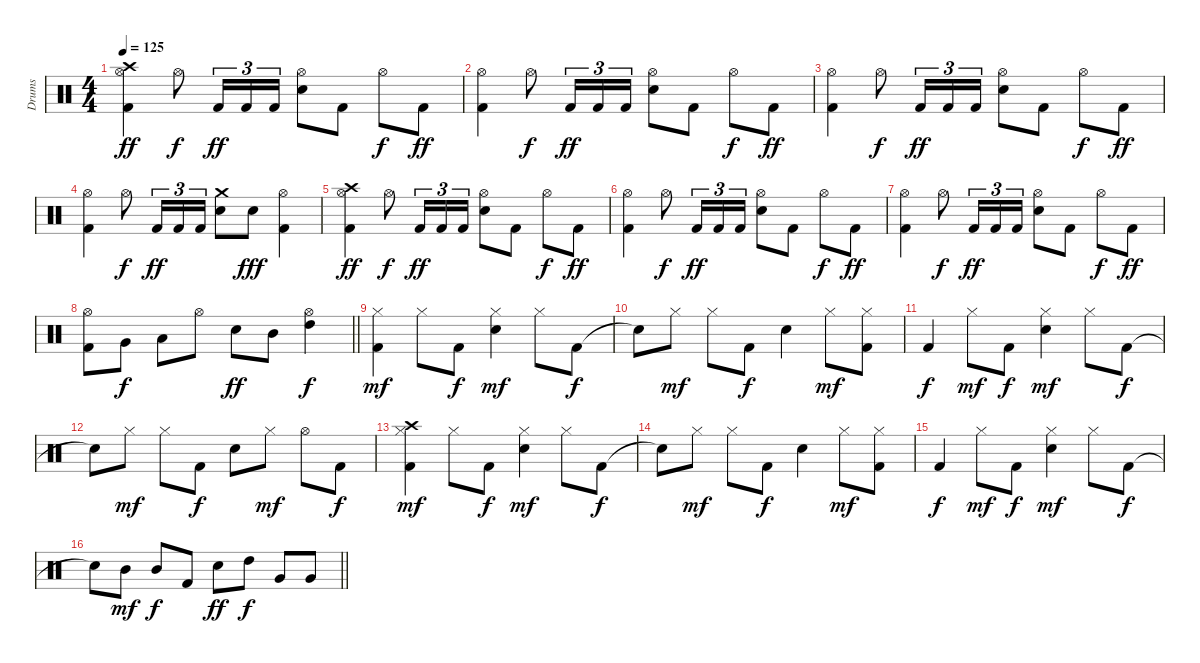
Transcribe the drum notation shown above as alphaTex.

\track ("Drums" "Drums") {instrument percussion}
\staff {score}
\articulation defaults
\ts (4 4)
\section ("" "")
\tempo 125
\clef neutral
\ks c
("Crash high (hit)" "Hi-Hat (open)" "Kick (hit) 2").4{dy ff} "Hi-Hat (open)".8{dy f} "Kick (hit) 2".16{tu (3 2) dy ff} "Kick (hit) 2".16{tu (3 2)} "Kick (hit) 2".16{tu (3 2)} ("Hi-Hat (open)" "Snare (hit) 2").8 "Kick (hit) 2".8 "Hi-Hat (open)".8{dy f} "Kick (hit) 2".8{dy ff} |
("Hi-Hat (open)" "Kick (hit) 2").4 "Hi-Hat (open)".8{dy f} "Kick (hit) 2".16{tu (3 2) dy ff} "Kick (hit) 2".16{tu (3 2)} "Kick (hit) 2".16{tu (3 2)} ("Hi-Hat (open)" "Snare (hit) 2").8 "Kick (hit) 2".8 "Hi-Hat (open)".8{dy f} "Kick (hit) 2".8{dy ff} |
("Hi-Hat (open)" "Kick (hit) 2").4 "Hi-Hat (open)".8{dy f} "Kick (hit) 2".16{tu (3 2) dy ff} "Kick (hit) 2".16{tu (3 2)} "Kick (hit) 2".16{tu (3 2)} ("Hi-Hat (open)" "Snare (hit) 2").8 "Kick (hit) 2".8 "Hi-Hat (open)".8{dy f} "Kick (hit) 2".8{dy ff} |
("Hi-Hat (open)" "Kick (hit) 2").4 "Hi-Hat (open)".8{dy f} "Kick (hit) 2".16{tu (3 2) dy ff} "Kick (hit) 2".16{tu (3 2)} "Kick (hit) 2".16{tu (3 2)} ("Crash medium (hit)" "Snare (hit) 2").8 "Snare (hit) 2".8{dy fff} ("Hi-Hat (open)" "Kick (hit) 2").4 |
("Crash high (hit)" "Hi-Hat (open)" "Kick (hit) 2").4{dy ff} "Hi-Hat (open)".8{dy f} "Kick (hit) 2".16{tu (3 2) dy ff} "Kick (hit) 2".16{tu (3 2)} "Kick (hit) 2".16{tu (3 2)} ("Hi-Hat (open)" "Snare (hit) 2").8 "Kick (hit) 2".8 "Hi-Hat (open)".8{dy f} "Kick (hit) 2".8{dy ff} |
("Hi-Hat (open)" "Kick (hit) 2").4 "Hi-Hat (open)".8{dy f} "Kick (hit) 2".16{tu (3 2) dy ff} "Kick (hit) 2".16{tu (3 2)} "Kick (hit) 2".16{tu (3 2)} ("Hi-Hat (open)" "Snare (hit) 2").8 "Kick (hit) 2".8 "Hi-Hat (open)".8{dy f} "Kick (hit) 2".8{dy ff} |
("Hi-Hat (open)" "Kick (hit) 2").4 "Hi-Hat (open)".8{dy f} "Kick (hit) 2".16{tu (3 2) dy ff} "Kick (hit) 2".16{tu (3 2)} "Kick (hit) 2".16{tu (3 2)} ("Hi-Hat (open)" "Snare (hit) 2").8 "Kick (hit) 2".8 "Hi-Hat (open)".8{dy f} "Kick (hit) 2".8{dy ff} |
\barLineRight lightlight
("Hi-Hat (open)" "Kick (hit) 2").8 "Very Low Tom (hit)".8{dy f} "Low Tom (hit)".8 "Hi-Hat (open)".8 "Snare (hit) 2".8{dy ff} "Mid Tom (hit)".8 ("Hi-Hat (open)" "High Tom (hit)").4{dy f} |
\section ("" "")
("Hi-Hat (closed)" "Kick (hit) 2").4{dy mf} "Hi-Hat (closed)".8 "Kick (hit) 2".8{dy f} ("Hi-Hat (closed)" "Snare (hit) 2").4{dy mf} "Hi-Hat (closed)".8 "Kick (hit) 2".8{dy f} |
"Snare (hit)"{t}.8 "Hi-Hat (closed)".8{dy mf} "Hi-Hat (closed)".8 "Kick (hit) 2".8{dy f} "Snare (hit) 2".4 "Hi-Hat (closed)".8{dy mf} ("Hi-Hat (closed)" "Kick (hit) 2").8 |
"Kick (hit) 2".4{dy f} "Hi-Hat (closed)".8{dy mf} "Kick (hit) 2".8{dy f} ("Hi-Hat (closed)" "Snare (hit) 2").4{dy mf} "Hi-Hat (closed)".8 "Kick (hit) 2".8{dy f} |
"Snare (hit)"{t}.8 "Hi-Hat (closed)".8{dy mf} "Hi-Hat (closed)".8 "Kick (hit) 2".8{dy f} "Snare (hit) 2".8 "Hi-Hat (closed)".8{dy mf} "Hi-Hat (open)".8 "Kick (hit) 2".8{dy f} |
("Crash high (hit)" "Hi-Hat (closed)" "Kick (hit) 2").4{dy mf} "Hi-Hat (closed)".8 "Kick (hit) 2".8{dy f} ("Hi-Hat (closed)" "Snare (hit) 2").4{dy mf} "Hi-Hat (closed)".8 "Kick (hit) 2".8{dy f} |
"Snare (hit)"{t}.8 "Hi-Hat (closed)".8{dy mf} "Hi-Hat (closed)".8 "Kick (hit) 2".8{dy f} "Snare (hit) 2".4 "Hi-Hat (closed)".8{dy mf} ("Hi-Hat (closed)" "Kick (hit) 2").8 |
"Kick (hit) 2".4{dy f} "Hi-Hat (closed)".8{dy mf} "Kick (hit) 2".8{dy f} ("Hi-Hat (closed)" "Snare (hit) 2").4{dy mf} "Hi-Hat (closed)".8 "Kick (hit) 2".8{dy f} |
\barLineRight lightlight "Snare (hit)"{t}.8 "Mid Tom (hit)".8{dy mf} "Mid Tom (hit)".8{dy f} "Kick (hit) 2".8 "Snare (hit) 2".8{dy ff} "High Tom (hit)".8{dy f} "Very Low Tom (hit)".8 "Very Low Tom (hit)".8
